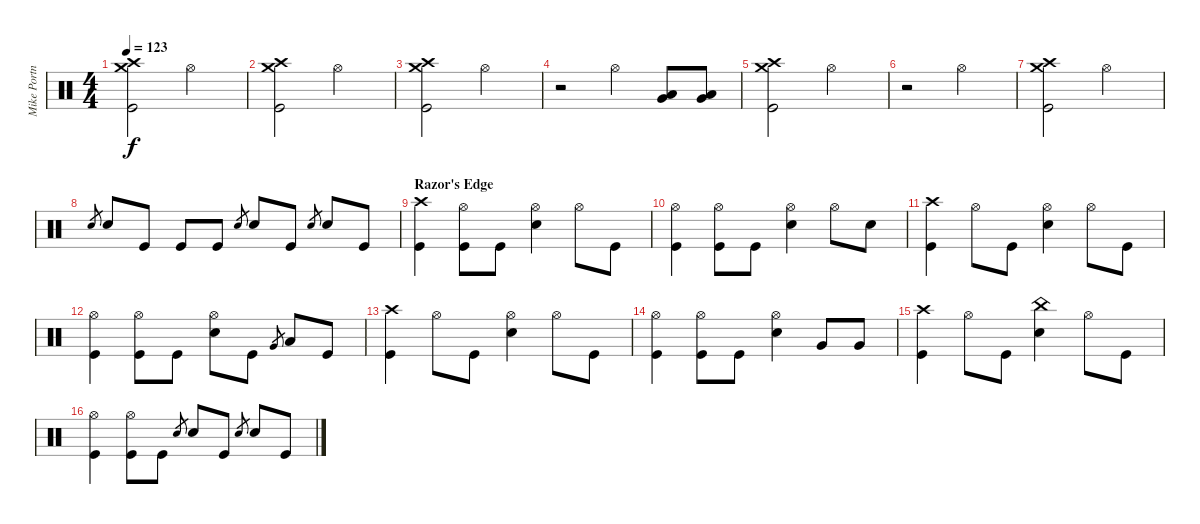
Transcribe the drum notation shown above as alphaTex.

\track ("Mike Portnoy" "Mike Portn") {instrument percussion}
\staff {score}
\articulation defaults
\ts (4 4)
\tempo 123
\clef neutral
\ks c
("Crash high (hit)" "Crash medium (hit)" "Kick (hit)").2{dy f} "Hi-Hat (open)".2 |
("Crash high (hit)" "Crash medium (hit)" "Kick (hit)").2 "Hi-Hat (open)".2 |
("Crash high (hit)" "Crash medium (hit)" "Kick (hit)").2 "Hi-Hat (open)".2 |
r.2 "Hi-Hat (open)".4 ("Low Tom (hit)" "Very Low Tom (hit)").8 ("Low Tom (hit)" "Very Low Tom (hit)").8 |
("Crash high (hit)" "Crash medium (hit)" "Kick (hit)").2 "Hi-Hat (open)".2 |
r.2 "Hi-Hat (open)".2 |
("Crash high (hit)" "Crash medium (hit)" "Kick (hit)").2 "Hi-Hat (open)".2 |
"Electric Snare (hit)".8{gr} "Electric Snare (hit)".8 "Kick (hit)".8 "Kick (hit)".8 "Kick (hit)".8 "Electric Snare (hit)".8{gr} "Electric Snare (hit)".8 "Kick (hit)".8 "Electric Snare (hit)".8{gr} "Electric Snare (hit)".8 "Kick (hit)".8 |
\section ("" "Razor's Edge")
("Crash high (hit)" "Kick (hit)").4 ("Hi-Hat (open)" "Kick (hit)").8 "Kick (hit)".8 ("Hi-Hat (open)" "Electric Snare (hit)").4 "Hi-Hat (open)".8 "Kick (hit)".8 |
("Hi-Hat (open)" "Kick (hit)").4 ("Hi-Hat (open)" "Kick (hit)").8 "Kick (hit)".8 ("Hi-Hat (open)" "Electric Snare (hit)").4 "Hi-Hat (open)".8 "Electric Snare (hit)".8 |
("Crash high (hit)" "Kick (hit)").4 "Hi-Hat (open)".8 "Kick (hit)".8 ("Hi-Hat (open)" "Electric Snare (hit)").4 "Hi-Hat (open)".8 "Kick (hit)".8 |
("Hi-Hat (open)" "Kick (hit)").4 ("Hi-Hat (open)" "Kick (hit)").8 "Kick (hit)".8 ("Hi-Hat (open)" "Electric Snare (hit)").8 "Kick (hit)".8 "Very Low Tom (hit)".8{gr} "Low Tom (hit)".8 "Kick (hit)".8 |
("Crash high (hit)" "Kick (hit)").4 "Hi-Hat (open)".8 "Kick (hit)".8 ("Hi-Hat (open)" "Electric Snare (hit)").4 "Hi-Hat (open)".8 "Kick (hit)".8 |
("Hi-Hat (open)" "Kick (hit)").4 ("Hi-Hat (open)" "Kick (hit)").8 "Kick (hit)".8 ("Hi-Hat (open)" "Electric Snare (hit)").4 "Very Low Tom (hit)".8 "Very Low Tom (hit)".8 |
("Crash high (hit)" "Kick (hit)").4 "Hi-Hat (open)".8 "Kick (hit)".8 ("China (hit)" "Electric Snare (hit)").4 "Hi-Hat (open)".8 "Kick (hit)".8 |
("Hi-Hat (open)" "Kick (hit)").4 ("Hi-Hat (open)" "Kick (hit)").8 "Kick (hit)".8 "Electric Snare (hit)".8{gr} "Electric Snare (hit)".8 "Kick (hit)".8 "Electric Snare (hit)".8{gr} "Electric Snare (hit)".8 "Kick (hit)".8
